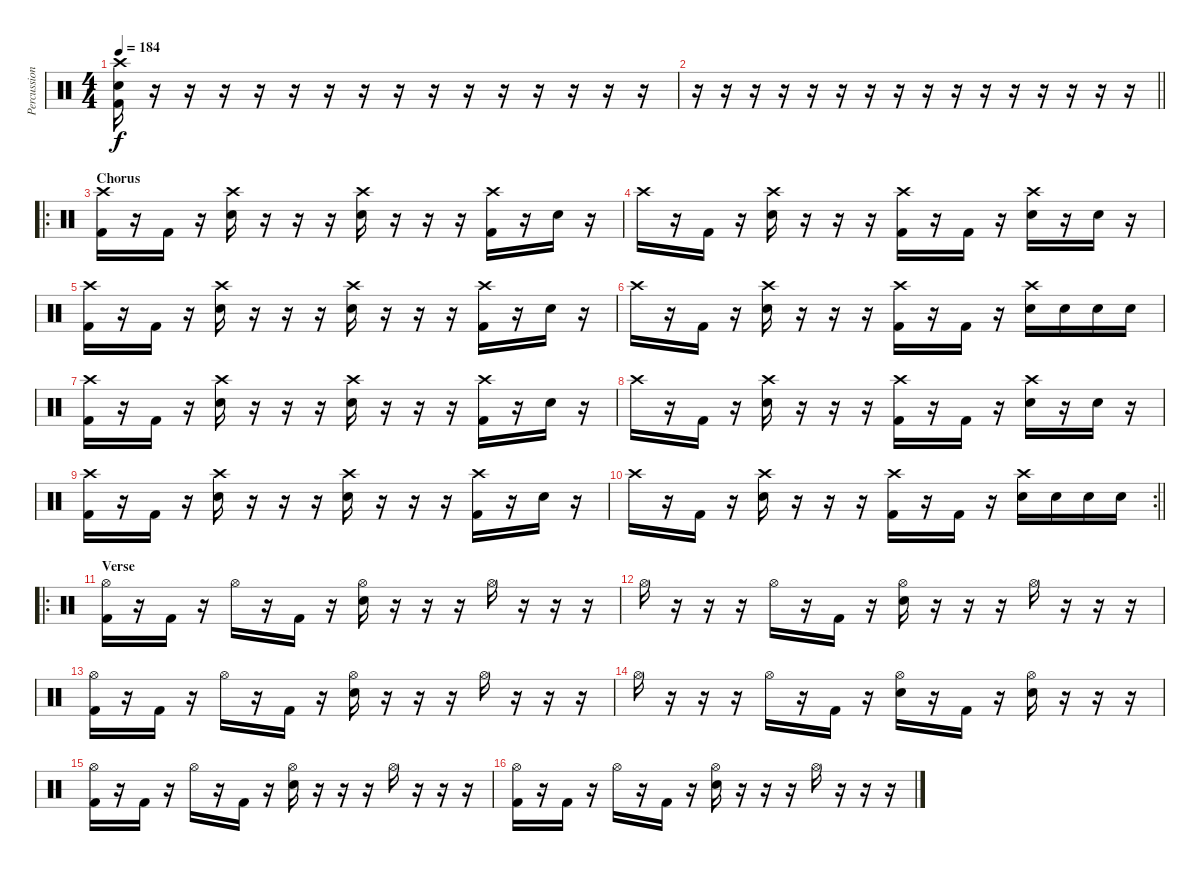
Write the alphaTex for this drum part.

\track ("Percussion" "Percussion") {instrument percussion}
\staff {score}
\articulation defaults
\ts (4 4)
\tempo 184
\clef neutral
\ks c
("Crash high (hit)" "Electric Snare (hit)" "Kick (hit) 2").16{dy f} r.16 r.16 r.16 r.16 r.16 r.16 r.16 r.16 r.16 r.16 r.16 r.16 r.16 r.16 r.16 |
\barLineRight lightlight
r.16 r.16 r.16 r.16 r.16 r.16 r.16 r.16 r.16 r.16 r.16 r.16 r.16 r.16 r.16 r.16 |
\ro
\section ("" "Chorus")
("Crash high (hit)" "Kick (hit) 2").16 r.16 "Kick (hit) 2".16 r.16 ("Crash high (hit)" "Electric Snare (hit)").16 r.16 r.16 r.16 ("Crash high (hit)" "Electric Snare (hit)").16 r.16 r.16 r.16 ("Crash high (hit)" "Kick (hit) 2").16 r.16 "Electric Snare (hit)".16 r.16 |
"Crash high (hit)".16 r.16 "Kick (hit) 2".16 r.16 ("Crash high (hit)" "Electric Snare (hit)").16 r.16 r.16 r.16 ("Crash high (hit)" "Kick (hit) 2").16 r.16 "Kick (hit) 2".16 r.16 ("Crash high (hit)" "Electric Snare (hit)").16 r.16 "Electric Snare (hit)".16 r.16 |
("Crash high (hit)" "Kick (hit) 2").16 r.16 "Kick (hit) 2".16 r.16 ("Crash high (hit)" "Electric Snare (hit)").16 r.16 r.16 r.16 ("Crash high (hit)" "Electric Snare (hit)").16 r.16 r.16 r.16 ("Crash high (hit)" "Kick (hit) 2").16 r.16 "Electric Snare (hit)".16 r.16 |
"Crash high (hit)".16 r.16 "Kick (hit) 2".16 r.16 ("Crash high (hit)" "Electric Snare (hit)").16 r.16 r.16 r.16 ("Crash high (hit)" "Kick (hit) 2").16 r.16 "Kick (hit) 2".16 r.16 ("Crash high (hit)" "Electric Snare (hit)").16 "Electric Snare (hit)".16 "Electric Snare (hit)".16 "Electric Snare (hit)".16 |
("Crash high (hit)" "Kick (hit) 2").16 r.16 "Kick (hit) 2".16 r.16 ("Crash high (hit)" "Electric Snare (hit)").16 r.16 r.16 r.16 ("Crash high (hit)" "Electric Snare (hit)").16 r.16 r.16 r.16 ("Crash high (hit)" "Kick (hit) 2").16 r.16 "Electric Snare (hit)".16 r.16 |
"Crash high (hit)".16 r.16 "Kick (hit) 2".16 r.16 ("Crash high (hit)" "Electric Snare (hit)").16 r.16 r.16 r.16 ("Crash high (hit)" "Kick (hit) 2").16 r.16 "Kick (hit) 2".16 r.16 ("Crash high (hit)" "Electric Snare (hit)").16 r.16 "Electric Snare (hit)".16 r.16 |
("Crash high (hit)" "Kick (hit) 2").16 r.16 "Kick (hit) 2".16 r.16 ("Crash high (hit)" "Electric Snare (hit)").16 r.16 r.16 r.16 ("Crash high (hit)" "Electric Snare (hit)").16 r.16 r.16 r.16 ("Crash high (hit)" "Kick (hit) 2").16 r.16 "Electric Snare (hit)".16 r.16 |
\rc 2
\barLineRight lightlight "Crash high (hit)".16
r.16 "Kick (hit) 2".16 r.16 ("Crash high (hit)" "Electric Snare (hit)").16 r.16 r.16 r.16 ("Crash high (hit)" "Kick (hit) 2").16 r.16 "Kick (hit) 2".16 r.16 ("Crash high (hit)" "Electric Snare (hit)").16 "Electric Snare (hit)".16 "Electric Snare (hit)".16 "Electric Snare (hit)".16 |
\ro
\section ("" "Verse")
("Hi-Hat (open)" "Kick (hit) 2").16 r.16 "Kick (hit) 2".16 r.16 "Hi-Hat (open)".16 r.16 "Kick (hit) 2".16 r.16 ("Hi-Hat (open)" "Electric Snare (hit)").16 r.16 r.16 r.16 "Hi-Hat (open)".16 r.16 r.16 r.16 |
"Hi-Hat (open)".16 r.16 r.16 r.16 "Hi-Hat (open)".16 r.16 "Kick (hit) 2".16 r.16 ("Hi-Hat (open)" "Electric Snare (hit)").16 r.16 r.16 r.16 "Hi-Hat (open)".16 r.16 r.16 r.16 |
("Hi-Hat (open)" "Kick (hit) 2").16 r.16 "Kick (hit) 2".16 r.16 "Hi-Hat (open)".16 r.16 "Kick (hit) 2".16 r.16 ("Hi-Hat (open)" "Electric Snare (hit)").16 r.16 r.16 r.16 "Hi-Hat (open)".16 r.16 r.16 r.16 |
"Hi-Hat (open)".16 r.16 r.16 r.16 "Hi-Hat (open)".16 r.16 "Kick (hit) 2".16 r.16 ("Hi-Hat (open)" "Electric Snare (hit)").16 r.16 "Kick (hit) 2".16 r.16 ("Hi-Hat (open)" "Electric Snare (hit)").16 r.16 r.16 r.16 |
("Hi-Hat (open)" "Kick (hit) 2").16 r.16 "Kick (hit) 2".16 r.16 "Hi-Hat (open)".16 r.16 "Kick (hit) 2".16 r.16 ("Hi-Hat (open)" "Electric Snare (hit)").16 r.16 r.16 r.16 "Hi-Hat (open)".16 r.16 r.16 r.16 |
("Hi-Hat (open)" "Kick (hit) 2").16 r.16 "Kick (hit) 2".16 r.16 "Hi-Hat (open)".16 r.16 "Kick (hit) 2".16 r.16 ("Hi-Hat (open)" "Electric Snare (hit)").16 r.16 r.16 r.16 "Hi-Hat (open)".16 r.16 r.16 r.16
